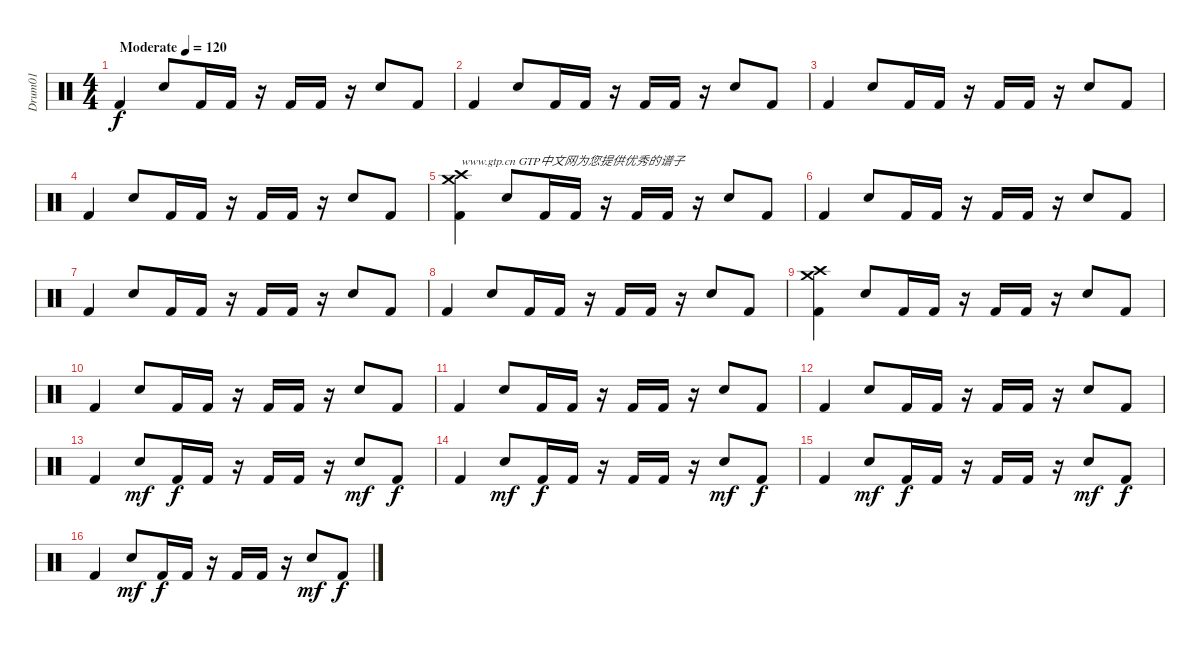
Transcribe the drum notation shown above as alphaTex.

\track ("Drum01" "Drum01") {instrument percussion}
\staff {score}
\articulation defaults
\ts (4 4)
\tempo (120 "Moderate")
\clef neutral
\ks c "Kick (hit) 2".4{dy f} "Snare (hit) 2".8 "Kick (hit) 2".16 "Kick (hit) 2".16
r.16 "Kick (hit) 2".16 "Kick (hit) 2".16 r.16 "Snare (hit) 2".8 "Kick (hit) 2".8 |
"Kick (hit) 2".4 "Snare (hit) 2".8 "Kick (hit) 2".16 "Kick (hit) 2".16 r.16 "Kick (hit) 2".16 "Kick (hit) 2".16 r.16 "Snare (hit) 2".8 "Kick (hit) 2".8 |
"Kick (hit) 2".4 "Snare (hit) 2".8 "Kick (hit) 2".16 "Kick (hit) 2".16 r.16 "Kick (hit) 2".16 "Kick (hit) 2".16 r.16 "Snare (hit) 2".8 "Kick (hit) 2".8 |
"Kick (hit) 2".4 "Snare (hit) 2".8 "Kick (hit) 2".16 "Kick (hit) 2".16 r.16 "Kick (hit) 2".16 "Kick (hit) 2".16 r.16 "Snare (hit) 2".8 "Kick (hit) 2".8 |
("Crash high (hit)" "Crash medium (hit)" "Kick (hit) 2").4{txt "www.gtp.cn GTP中文网为您提供优秀的谱子"} "Snare (hit) 2".8 "Kick (hit) 2".16 "Kick (hit) 2".16 r.16 "Kick (hit) 2".16 "Kick (hit) 2".16 r.16 "Snare (hit) 2".8 "Kick (hit) 2".8 |
"Kick (hit) 2".4 "Snare (hit) 2".8 "Kick (hit) 2".16 "Kick (hit) 2".16 r.16 "Kick (hit) 2".16 "Kick (hit) 2".16 r.16 "Snare (hit) 2".8 "Kick (hit) 2".8 |
"Kick (hit) 2".4 "Snare (hit) 2".8 "Kick (hit) 2".16 "Kick (hit) 2".16 r.16 "Kick (hit) 2".16 "Kick (hit) 2".16 r.16 "Snare (hit) 2".8 "Kick (hit) 2".8 |
"Kick (hit) 2".4 "Snare (hit) 2".8 "Kick (hit) 2".16 "Kick (hit) 2".16 r.16 "Kick (hit) 2".16 "Kick (hit) 2".16 r.16 "Snare (hit) 2".8 "Kick (hit) 2".8 |
("Crash high (hit)" "Crash medium (hit)" "Kick (hit) 2").4 "Snare (hit) 2".8 "Kick (hit) 2".16 "Kick (hit) 2".16 r.16 "Kick (hit) 2".16 "Kick (hit) 2".16 r.16 "Snare (hit) 2".8 "Kick (hit) 2".8 |
"Kick (hit) 2".4 "Snare (hit) 2".8 "Kick (hit) 2".16 "Kick (hit) 2".16 r.16 "Kick (hit) 2".16 "Kick (hit) 2".16 r.16 "Snare (hit) 2".8 "Kick (hit) 2".8 |
"Kick (hit) 2".4 "Snare (hit) 2".8 "Kick (hit) 2".16 "Kick (hit) 2".16 r.16 "Kick (hit) 2".16 "Kick (hit) 2".16 r.16 "Snare (hit) 2".8 "Kick (hit) 2".8 |
"Kick (hit) 2".4 "Snare (hit) 2".8 "Kick (hit) 2".16 "Kick (hit) 2".16 r.16 "Kick (hit) 2".16 "Kick (hit) 2".16 r.16 "Snare (hit) 2".8 "Kick (hit) 2".8 |
"Kick (hit) 2".4 "Snare (hit) 2".8{dy mf} "Kick (hit) 2".16{dy f} "Kick (hit) 2".16 r.16 "Kick (hit) 2".16 "Kick (hit) 2".16 r.16 "Snare (hit) 2".8{dy mf} "Kick (hit) 2".8{dy f} |
"Kick (hit) 2".4 "Snare (hit) 2".8{dy mf} "Kick (hit) 2".16{dy f} "Kick (hit) 2".16 r.16 "Kick (hit) 2".16 "Kick (hit) 2".16 r.16 "Snare (hit) 2".8{dy mf} "Kick (hit) 2".8{dy f} |
"Kick (hit) 2".4 "Snare (hit) 2".8{dy mf} "Kick (hit) 2".16{dy f} "Kick (hit) 2".16 r.16 "Kick (hit) 2".16 "Kick (hit) 2".16 r.16 "Snare (hit) 2".8{dy mf} "Kick (hit) 2".8{dy f} |
"Kick (hit) 2".4 "Snare (hit) 2".8{dy mf} "Kick (hit) 2".16{dy f} "Kick (hit) 2".16 r.16 "Kick (hit) 2".16 "Kick (hit) 2".16 r.16 "Snare (hit) 2".8{dy mf} "Kick (hit) 2".8{dy f}
